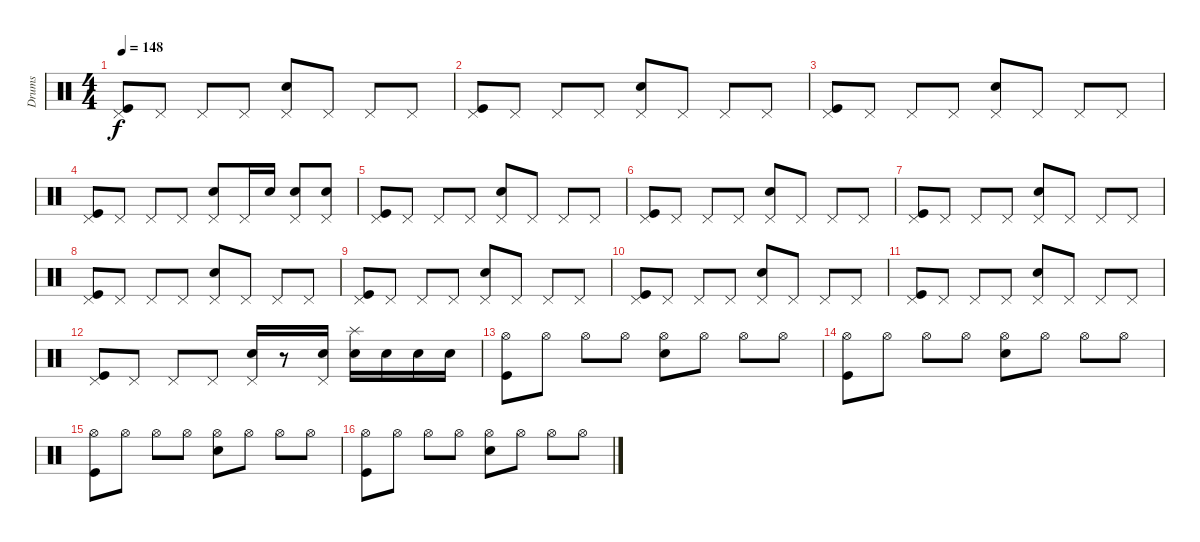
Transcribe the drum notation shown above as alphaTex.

\track ("Drums" "Drums") {instrument percussion}
\staff {score}
\articulation defaults
\ts (4 4)
\tempo 148
\clef neutral
\ks c
("Pedal Hi-Hat (hit)" "Kick (hit)").8{dy f volume 14} "Pedal Hi-Hat (hit)".8 "Pedal Hi-Hat (hit)".8 "Pedal Hi-Hat (hit)".8 ("Pedal Hi-Hat (hit)" "Snare (hit) 2").8 "Pedal Hi-Hat (hit)".8 "Pedal Hi-Hat (hit)".8 "Pedal Hi-Hat (hit)".8 |
("Pedal Hi-Hat (hit)" "Kick (hit)").8 "Pedal Hi-Hat (hit)".8 "Pedal Hi-Hat (hit)".8 "Pedal Hi-Hat (hit)".8 ("Pedal Hi-Hat (hit)" "Snare (hit) 2").8 "Pedal Hi-Hat (hit)".8 "Pedal Hi-Hat (hit)".8 "Pedal Hi-Hat (hit)".8 |
("Pedal Hi-Hat (hit)" "Kick (hit)").8 "Pedal Hi-Hat (hit)".8 "Pedal Hi-Hat (hit)".8 "Pedal Hi-Hat (hit)".8 ("Pedal Hi-Hat (hit)" "Snare (hit) 2").8 "Pedal Hi-Hat (hit)".8 "Pedal Hi-Hat (hit)".8 "Pedal Hi-Hat (hit)".8 |
("Pedal Hi-Hat (hit)" "Kick (hit)").8 "Pedal Hi-Hat (hit)".8 "Pedal Hi-Hat (hit)".8 "Pedal Hi-Hat (hit)".8 ("Pedal Hi-Hat (hit)" "Snare (hit) 2").8 "Pedal Hi-Hat (hit)".16 "Snare (hit) 2".16 ("Pedal Hi-Hat (hit)" "Snare (hit) 2").8 ("Pedal Hi-Hat (hit)" "Snare (hit) 2").8 |
("Pedal Hi-Hat (hit)" "Kick (hit)").8 "Pedal Hi-Hat (hit)".8 "Pedal Hi-Hat (hit)".8 "Pedal Hi-Hat (hit)".8 ("Pedal Hi-Hat (hit)" "Snare (hit) 2").8 "Pedal Hi-Hat (hit)".8 "Pedal Hi-Hat (hit)".8 "Pedal Hi-Hat (hit)".8 |
("Pedal Hi-Hat (hit)" "Kick (hit)").8 "Pedal Hi-Hat (hit)".8 "Pedal Hi-Hat (hit)".8 "Pedal Hi-Hat (hit)".8 ("Pedal Hi-Hat (hit)" "Snare (hit) 2").8 "Pedal Hi-Hat (hit)".8 "Pedal Hi-Hat (hit)".8 "Pedal Hi-Hat (hit)".8 |
("Pedal Hi-Hat (hit)" "Kick (hit)").8 "Pedal Hi-Hat (hit)".8 "Pedal Hi-Hat (hit)".8 "Pedal Hi-Hat (hit)".8 ("Pedal Hi-Hat (hit)" "Snare (hit) 2").8 "Pedal Hi-Hat (hit)".8 "Pedal Hi-Hat (hit)".8 "Pedal Hi-Hat (hit)".8 |
("Pedal Hi-Hat (hit)" "Kick (hit)").8 "Pedal Hi-Hat (hit)".8 "Pedal Hi-Hat (hit)".8 "Pedal Hi-Hat (hit)".8 ("Pedal Hi-Hat (hit)" "Snare (hit) 2").8 "Pedal Hi-Hat (hit)".8 "Pedal Hi-Hat (hit)".8 "Pedal Hi-Hat (hit)".8 |
("Pedal Hi-Hat (hit)" "Kick (hit)").8 "Pedal Hi-Hat (hit)".8 "Pedal Hi-Hat (hit)".8 "Pedal Hi-Hat (hit)".8 ("Pedal Hi-Hat (hit)" "Snare (hit) 2").8 "Pedal Hi-Hat (hit)".8 "Pedal Hi-Hat (hit)".8 "Pedal Hi-Hat (hit)".8 |
("Pedal Hi-Hat (hit)" "Kick (hit)").8 "Pedal Hi-Hat (hit)".8 "Pedal Hi-Hat (hit)".8 "Pedal Hi-Hat (hit)".8 ("Pedal Hi-Hat (hit)" "Snare (hit) 2").8 "Pedal Hi-Hat (hit)".8 "Pedal Hi-Hat (hit)".8 "Pedal Hi-Hat (hit)".8 |
("Pedal Hi-Hat (hit)" "Kick (hit)").8 "Pedal Hi-Hat (hit)".8 "Pedal Hi-Hat (hit)".8 "Pedal Hi-Hat (hit)".8 ("Pedal Hi-Hat (hit)" "Snare (hit) 2").8 "Pedal Hi-Hat (hit)".8 "Pedal Hi-Hat (hit)".8 "Pedal Hi-Hat (hit)".8 |
("Pedal Hi-Hat (hit)" "Kick (hit)").8 "Pedal Hi-Hat (hit)".8 "Pedal Hi-Hat (hit)".8 "Pedal Hi-Hat (hit)".8 ("Pedal Hi-Hat (hit)" "Snare (hit) 2").16 r.8 ("Pedal Hi-Hat (hit)" "Snare (hit) 2").16 ("Splash (hit)" "Snare (hit) 2").16 "Snare (hit) 2".16 "Snare (hit) 2".16 "Snare (hit) 2".16 |
("Hi-Hat (open)" "Kick (hit)").8 "Hi-Hat (open)".8 "Hi-Hat (open)".8 "Hi-Hat (open)".8 ("Snare (hit) 2" "Hi-Hat (open)").8 "Hi-Hat (open)".8 "Hi-Hat (open)".8 "Hi-Hat (open)".8 |
("Kick (hit)" "Hi-Hat (open)").8 "Hi-Hat (open)".8 "Hi-Hat (open)".8 "Hi-Hat (open)".8 ("Snare (hit) 2" "Hi-Hat (open)").8 "Hi-Hat (open)".8 "Hi-Hat (open)".8 "Hi-Hat (open)".8 |
("Kick (hit)" "Hi-Hat (open)").8 "Hi-Hat (open)".8 "Hi-Hat (open)".8 "Hi-Hat (open)".8 ("Snare (hit) 2" "Hi-Hat (open)").8 "Hi-Hat (open)".8 "Hi-Hat (open)".8 "Hi-Hat (open)".8 |
("Kick (hit)" "Hi-Hat (open)").8 "Hi-Hat (open)".8 "Hi-Hat (open)".8 "Hi-Hat (open)".8 ("Snare (hit) 2" "Hi-Hat (open)").8 "Hi-Hat (open)".8 "Hi-Hat (open)".8 "Hi-Hat (open)".8
